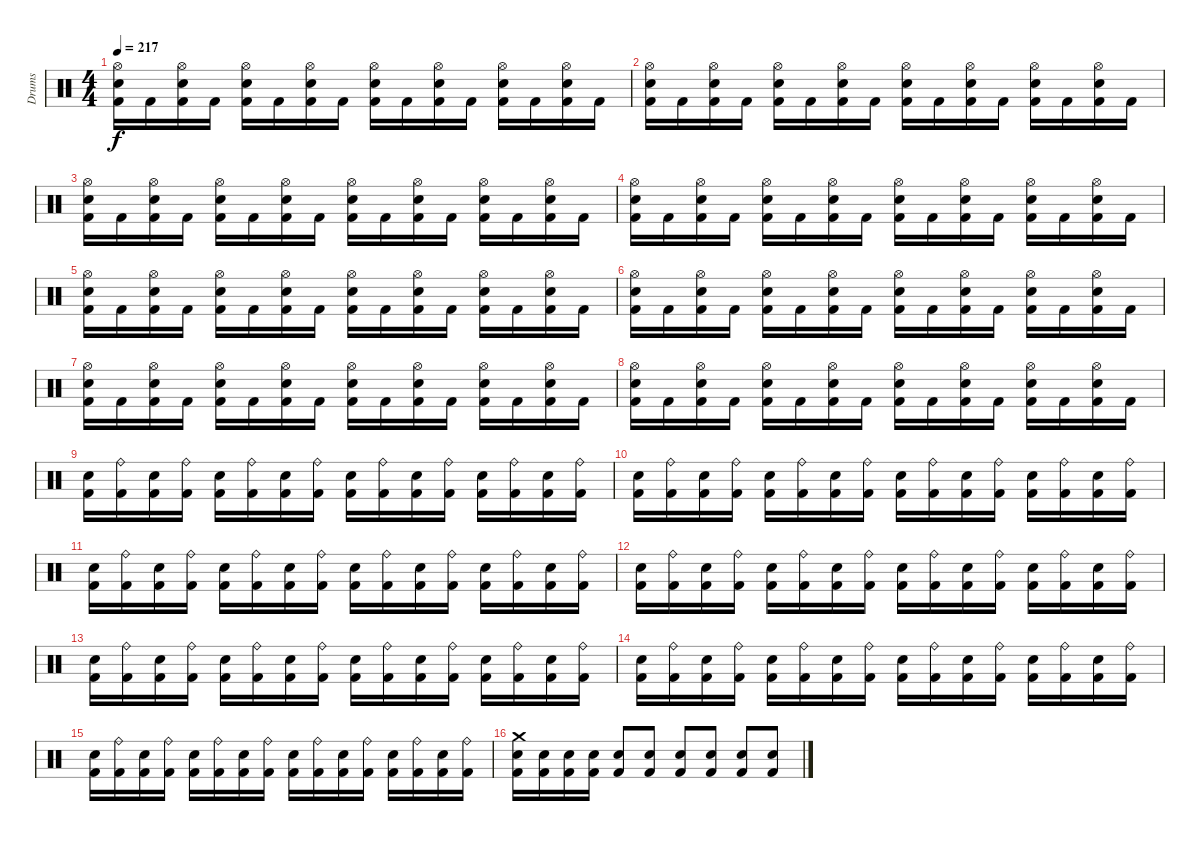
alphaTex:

\track ("Drums" "Drums") {instrument percussion}
\staff {score}
\articulation defaults
\ts (4 4)
\tempo 217
\clef neutral
\ks c
("Hi-Hat (open)" "Electric Snare (hit)" "Kick (hit) 2").16{dy f} "Kick (hit) 2".16 ("Hi-Hat (open)" "Electric Snare (hit)" "Kick (hit) 2").16 "Kick (hit) 2".16 ("Hi-Hat (open)" "Electric Snare (hit)" "Kick (hit) 2").16 "Kick (hit) 2".16 ("Hi-Hat (open)" "Electric Snare (hit)" "Kick (hit) 2").16 "Kick (hit) 2".16 ("Hi-Hat (open)" "Electric Snare (hit)" "Kick (hit) 2").16 "Kick (hit) 2".16 ("Hi-Hat (open)" "Electric Snare (hit)" "Kick (hit) 2").16 "Kick (hit) 2".16 ("Hi-Hat (open)" "Electric Snare (hit)" "Kick (hit) 2").16 "Kick (hit) 2".16 ("Hi-Hat (open)" "Electric Snare (hit)" "Kick (hit) 2").16 "Kick (hit) 2".16 |
("Hi-Hat (open)" "Electric Snare (hit)" "Kick (hit) 2").16 "Kick (hit) 2".16 ("Hi-Hat (open)" "Electric Snare (hit)" "Kick (hit) 2").16 "Kick (hit) 2".16 ("Hi-Hat (open)" "Electric Snare (hit)" "Kick (hit) 2").16 "Kick (hit) 2".16 ("Hi-Hat (open)" "Electric Snare (hit)" "Kick (hit) 2").16 "Kick (hit) 2".16 ("Hi-Hat (open)" "Electric Snare (hit)" "Kick (hit) 2").16 "Kick (hit) 2".16 ("Hi-Hat (open)" "Electric Snare (hit)" "Kick (hit) 2").16 "Kick (hit) 2".16 ("Hi-Hat (open)" "Electric Snare (hit)" "Kick (hit) 2").16 "Kick (hit) 2".16 ("Hi-Hat (open)" "Electric Snare (hit)" "Kick (hit) 2").16 "Kick (hit) 2".16 |
("Hi-Hat (open)" "Electric Snare (hit)" "Kick (hit) 2").16 "Kick (hit) 2".16 ("Hi-Hat (open)" "Electric Snare (hit)" "Kick (hit) 2").16 "Kick (hit) 2".16 ("Hi-Hat (open)" "Electric Snare (hit)" "Kick (hit) 2").16 "Kick (hit) 2".16 ("Hi-Hat (open)" "Electric Snare (hit)" "Kick (hit) 2").16 "Kick (hit) 2".16 ("Hi-Hat (open)" "Electric Snare (hit)" "Kick (hit) 2").16 "Kick (hit) 2".16 ("Hi-Hat (open)" "Electric Snare (hit)" "Kick (hit) 2").16 "Kick (hit) 2".16 ("Hi-Hat (open)" "Electric Snare (hit)" "Kick (hit) 2").16 "Kick (hit) 2".16 ("Hi-Hat (open)" "Electric Snare (hit)" "Kick (hit) 2").16 "Kick (hit) 2".16 |
("Hi-Hat (open)" "Electric Snare (hit)" "Kick (hit) 2").16 "Kick (hit) 2".16 ("Hi-Hat (open)" "Electric Snare (hit)" "Kick (hit) 2").16 "Kick (hit) 2".16 ("Hi-Hat (open)" "Electric Snare (hit)" "Kick (hit) 2").16 "Kick (hit) 2".16 ("Hi-Hat (open)" "Electric Snare (hit)" "Kick (hit) 2").16 "Kick (hit) 2".16 ("Hi-Hat (open)" "Electric Snare (hit)" "Kick (hit) 2").16 "Kick (hit) 2".16 ("Hi-Hat (open)" "Electric Snare (hit)" "Kick (hit) 2").16 "Kick (hit) 2".16 ("Hi-Hat (open)" "Electric Snare (hit)" "Kick (hit) 2").16 "Kick (hit) 2".16 ("Hi-Hat (open)" "Electric Snare (hit)" "Kick (hit) 2").16 "Kick (hit) 2".16 |
("Hi-Hat (open)" "Electric Snare (hit)" "Kick (hit) 2").16 "Kick (hit) 2".16 ("Hi-Hat (open)" "Electric Snare (hit)" "Kick (hit) 2").16 "Kick (hit) 2".16 ("Hi-Hat (open)" "Electric Snare (hit)" "Kick (hit) 2").16 "Kick (hit) 2".16 ("Hi-Hat (open)" "Electric Snare (hit)" "Kick (hit) 2").16 "Kick (hit) 2".16 ("Hi-Hat (open)" "Electric Snare (hit)" "Kick (hit) 2").16 "Kick (hit) 2".16 ("Hi-Hat (open)" "Electric Snare (hit)" "Kick (hit) 2").16 "Kick (hit) 2".16 ("Hi-Hat (open)" "Electric Snare (hit)" "Kick (hit) 2").16 "Kick (hit) 2".16 ("Hi-Hat (open)" "Electric Snare (hit)" "Kick (hit) 2").16 "Kick (hit) 2".16 |
("Hi-Hat (open)" "Electric Snare (hit)" "Kick (hit) 2").16 "Kick (hit) 2".16 ("Hi-Hat (open)" "Electric Snare (hit)" "Kick (hit) 2").16 "Kick (hit) 2".16 ("Hi-Hat (open)" "Electric Snare (hit)" "Kick (hit) 2").16 "Kick (hit) 2".16 ("Hi-Hat (open)" "Electric Snare (hit)" "Kick (hit) 2").16 "Kick (hit) 2".16 ("Hi-Hat (open)" "Electric Snare (hit)" "Kick (hit) 2").16 "Kick (hit) 2".16 ("Hi-Hat (open)" "Electric Snare (hit)" "Kick (hit) 2").16 "Kick (hit) 2".16 ("Hi-Hat (open)" "Electric Snare (hit)" "Kick (hit) 2").16 "Kick (hit) 2".16 ("Hi-Hat (open)" "Electric Snare (hit)" "Kick (hit) 2").16 "Kick (hit) 2".16 |
("Hi-Hat (open)" "Electric Snare (hit)" "Kick (hit) 2").16 "Kick (hit) 2".16 ("Hi-Hat (open)" "Electric Snare (hit)" "Kick (hit) 2").16 "Kick (hit) 2".16 ("Hi-Hat (open)" "Electric Snare (hit)" "Kick (hit) 2").16 "Kick (hit) 2".16 ("Hi-Hat (open)" "Electric Snare (hit)" "Kick (hit) 2").16 "Kick (hit) 2".16 ("Hi-Hat (open)" "Electric Snare (hit)" "Kick (hit) 2").16 "Kick (hit) 2".16 ("Hi-Hat (open)" "Electric Snare (hit)" "Kick (hit) 2").16 "Kick (hit) 2".16 ("Hi-Hat (open)" "Electric Snare (hit)" "Kick (hit) 2").16 "Kick (hit) 2".16 ("Hi-Hat (open)" "Electric Snare (hit)" "Kick (hit) 2").16 "Kick (hit) 2".16 |
("Hi-Hat (open)" "Electric Snare (hit)" "Kick (hit) 2").16 "Kick (hit) 2".16 ("Hi-Hat (open)" "Electric Snare (hit)" "Kick (hit) 2").16 "Kick (hit) 2".16 ("Hi-Hat (open)" "Electric Snare (hit)" "Kick (hit) 2").16 "Kick (hit) 2".16 ("Hi-Hat (open)" "Electric Snare (hit)" "Kick (hit) 2").16 "Kick (hit) 2".16 ("Hi-Hat (open)" "Electric Snare (hit)" "Kick (hit) 2").16 "Kick (hit) 2".16 ("Hi-Hat (open)" "Electric Snare (hit)" "Kick (hit) 2").16 "Kick (hit) 2".16 ("Hi-Hat (open)" "Electric Snare (hit)" "Kick (hit) 2").16 "Kick (hit) 2".16 ("Hi-Hat (open)" "Electric Snare (hit)" "Kick (hit) 2").16 "Kick (hit) 2".16 |
("Electric Snare (hit)" "Kick (hit) 2").16 ("Ride (bell)" "Kick (hit) 2").16 ("Electric Snare (hit)" "Kick (hit) 2").16 ("Ride (bell)" "Kick (hit) 2").16 ("Electric Snare (hit)" "Kick (hit) 2").16 ("Ride (bell)" "Kick (hit) 2").16 ("Electric Snare (hit)" "Kick (hit) 2").16 ("Ride (bell)" "Kick (hit) 2").16 ("Electric Snare (hit)" "Kick (hit) 2").16 ("Ride (bell)" "Kick (hit) 2").16 ("Electric Snare (hit)" "Kick (hit) 2").16 ("Ride (bell)" "Kick (hit) 2").16 ("Electric Snare (hit)" "Kick (hit) 2").16 ("Ride (bell)" "Kick (hit) 2").16 ("Electric Snare (hit)" "Kick (hit) 2").16 ("Ride (bell)" "Kick (hit) 2").16 |
("Electric Snare (hit)" "Kick (hit) 2").16 ("Ride (bell)" "Kick (hit) 2").16 ("Electric Snare (hit)" "Kick (hit) 2").16 ("Ride (bell)" "Kick (hit) 2").16 ("Electric Snare (hit)" "Kick (hit) 2").16 ("Ride (bell)" "Kick (hit) 2").16 ("Electric Snare (hit)" "Kick (hit) 2").16 ("Ride (bell)" "Kick (hit) 2").16 ("Electric Snare (hit)" "Kick (hit) 2").16 ("Ride (bell)" "Kick (hit) 2").16 ("Electric Snare (hit)" "Kick (hit) 2").16 ("Ride (bell)" "Kick (hit) 2").16 ("Electric Snare (hit)" "Kick (hit) 2").16 ("Ride (bell)" "Kick (hit) 2").16 ("Electric Snare (hit)" "Kick (hit) 2").16 ("Ride (bell)" "Kick (hit) 2").16 |
("Electric Snare (hit)" "Kick (hit) 2").16 ("Ride (bell)" "Kick (hit) 2").16 ("Electric Snare (hit)" "Kick (hit) 2").16 ("Ride (bell)" "Kick (hit) 2").16 ("Electric Snare (hit)" "Kick (hit) 2").16 ("Ride (bell)" "Kick (hit) 2").16 ("Electric Snare (hit)" "Kick (hit) 2").16 ("Ride (bell)" "Kick (hit) 2").16 ("Electric Snare (hit)" "Kick (hit) 2").16 ("Ride (bell)" "Kick (hit) 2").16 ("Electric Snare (hit)" "Kick (hit) 2").16 ("Ride (bell)" "Kick (hit) 2").16 ("Electric Snare (hit)" "Kick (hit) 2").16 ("Ride (bell)" "Kick (hit) 2").16 ("Electric Snare (hit)" "Kick (hit) 2").16 ("Ride (bell)" "Kick (hit) 2").16 |
("Electric Snare (hit)" "Kick (hit) 2").16 ("Ride (bell)" "Kick (hit) 2").16 ("Electric Snare (hit)" "Kick (hit) 2").16 ("Ride (bell)" "Kick (hit) 2").16 ("Electric Snare (hit)" "Kick (hit) 2").16 ("Ride (bell)" "Kick (hit) 2").16 ("Electric Snare (hit)" "Kick (hit) 2").16 ("Ride (bell)" "Kick (hit) 2").16 ("Electric Snare (hit)" "Kick (hit) 2").16 ("Ride (bell)" "Kick (hit) 2").16 ("Electric Snare (hit)" "Kick (hit) 2").16 ("Ride (bell)" "Kick (hit) 2").16 ("Electric Snare (hit)" "Kick (hit) 2").16 ("Ride (bell)" "Kick (hit) 2").16 ("Electric Snare (hit)" "Kick (hit) 2").16 ("Ride (bell)" "Kick (hit) 2").16 |
("Electric Snare (hit)" "Kick (hit) 2").16 ("Ride (bell)" "Kick (hit) 2").16 ("Electric Snare (hit)" "Kick (hit) 2").16 ("Ride (bell)" "Kick (hit) 2").16 ("Electric Snare (hit)" "Kick (hit) 2").16 ("Ride (bell)" "Kick (hit) 2").16 ("Electric Snare (hit)" "Kick (hit) 2").16 ("Ride (bell)" "Kick (hit) 2").16 ("Electric Snare (hit)" "Kick (hit) 2").16 ("Ride (bell)" "Kick (hit) 2").16 ("Electric Snare (hit)" "Kick (hit) 2").16 ("Ride (bell)" "Kick (hit) 2").16 ("Electric Snare (hit)" "Kick (hit) 2").16 ("Ride (bell)" "Kick (hit) 2").16 ("Electric Snare (hit)" "Kick (hit) 2").16 ("Ride (bell)" "Kick (hit) 2").16 |
("Electric Snare (hit)" "Kick (hit) 2").16 ("Ride (bell)" "Kick (hit) 2").16 ("Electric Snare (hit)" "Kick (hit) 2").16 ("Ride (bell)" "Kick (hit) 2").16 ("Electric Snare (hit)" "Kick (hit) 2").16 ("Ride (bell)" "Kick (hit) 2").16 ("Electric Snare (hit)" "Kick (hit) 2").16 ("Ride (bell)" "Kick (hit) 2").16 ("Electric Snare (hit)" "Kick (hit) 2").16 ("Ride (bell)" "Kick (hit) 2").16 ("Electric Snare (hit)" "Kick (hit) 2").16 ("Ride (bell)" "Kick (hit) 2").16 ("Electric Snare (hit)" "Kick (hit) 2").16 ("Ride (bell)" "Kick (hit) 2").16 ("Electric Snare (hit)" "Kick (hit) 2").16 ("Ride (bell)" "Kick (hit) 2").16 |
("Electric Snare (hit)" "Kick (hit) 2").16 ("Ride (bell)" "Kick (hit) 2").16 ("Electric Snare (hit)" "Kick (hit) 2").16 ("Ride (bell)" "Kick (hit) 2").16 ("Electric Snare (hit)" "Kick (hit) 2").16 ("Ride (bell)" "Kick (hit) 2").16 ("Electric Snare (hit)" "Kick (hit) 2").16 ("Ride (bell)" "Kick (hit) 2").16 ("Electric Snare (hit)" "Kick (hit) 2").16 ("Ride (bell)" "Kick (hit) 2").16 ("Electric Snare (hit)" "Kick (hit) 2").16 ("Ride (bell)" "Kick (hit) 2").16 ("Electric Snare (hit)" "Kick (hit) 2").16 ("Ride (bell)" "Kick (hit) 2").16 ("Electric Snare (hit)" "Kick (hit) 2").16 ("Ride (bell)" "Kick (hit) 2").16 |
("Crash medium (hit)" "Electric Snare (hit)" "Kick (hit) 2").16 ("Electric Snare (hit)" "Kick (hit) 2").16 ("Electric Snare (hit)" "Kick (hit) 2").16 ("Electric Snare (hit)" "Kick (hit) 2").16 ("Electric Snare (hit)" "Kick (hit) 2").8 ("Electric Snare (hit)" "Kick (hit) 2").8 ("Electric Snare (hit)" "Kick (hit) 2").8 ("Electric Snare (hit)" "Kick (hit) 2").8 ("Electric Snare (hit)" "Kick (hit) 2").8 ("Electric Snare (hit)" "Kick (hit) 2").8
